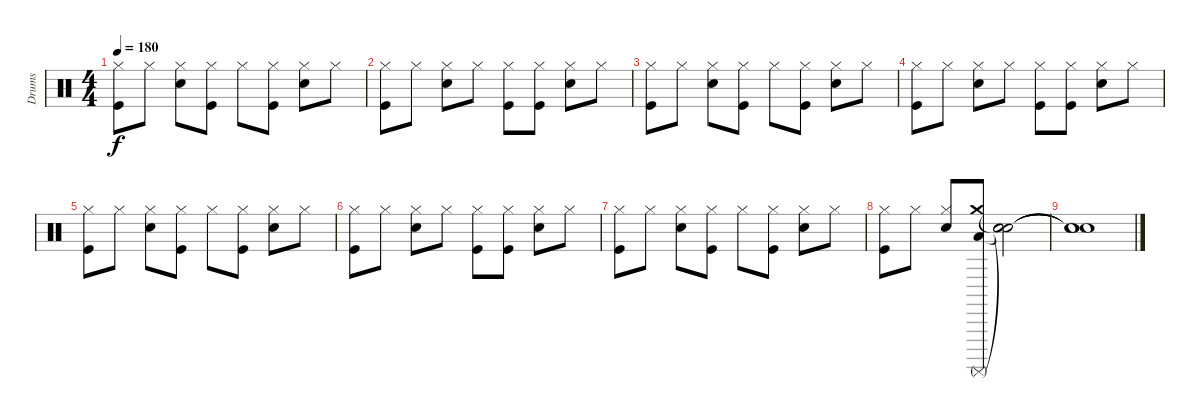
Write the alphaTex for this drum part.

\track ("Drums" "Drums") {instrument percussion}
\staff {score}
\articulation defaults
\ts (4 4)
\tempo 180
\clef neutral
\ks c
("Hi-Hat (closed)" "Kick (hit)").8{dy f} "Hi-Hat (closed)".8 ("Hi-Hat (closed)" "Snare (hit) 2").8 ("Hi-Hat (closed)" "Kick (hit)").8 "Hi-Hat (closed)".8 ("Hi-Hat (closed)" "Kick (hit)").8 ("Hi-Hat (closed)" "Snare (hit) 2").8 "Hi-Hat (closed)".8 |
("Hi-Hat (closed)" "Kick (hit)").8 "Hi-Hat (closed)".8 ("Hi-Hat (closed)" "Snare (hit) 2").8 "Hi-Hat (closed)".8 ("Hi-Hat (closed)" "Kick (hit)").8 ("Hi-Hat (closed)" "Kick (hit)").8 ("Hi-Hat (closed)" "Snare (hit) 2").8 "Hi-Hat (closed)".8 |
("Hi-Hat (closed)" "Kick (hit)").8 "Hi-Hat (closed)".8 ("Hi-Hat (closed)" "Snare (hit) 2").8 ("Hi-Hat (closed)" "Kick (hit)").8 "Hi-Hat (closed)".8 ("Hi-Hat (closed)" "Kick (hit)").8 ("Hi-Hat (closed)" "Snare (hit) 2").8 "Hi-Hat (closed)".8 |
("Hi-Hat (closed)" "Kick (hit)").8 "Hi-Hat (closed)".8 ("Hi-Hat (closed)" "Snare (hit) 2").8 "Hi-Hat (closed)".8 ("Hi-Hat (closed)" "Kick (hit)").8 ("Hi-Hat (closed)" "Kick (hit)").8 ("Hi-Hat (closed)" "Snare (hit) 2").8 "Hi-Hat (closed)".8 |
("Hi-Hat (closed)" "Kick (hit)").8 "Hi-Hat (closed)".8 ("Hi-Hat (closed)" "Snare (hit) 2").8 ("Hi-Hat (closed)" "Kick (hit)").8 "Hi-Hat (closed)".8 ("Hi-Hat (closed)" "Kick (hit)").8 ("Hi-Hat (closed)" "Snare (hit) 2").8 "Hi-Hat (closed)".8 |
("Hi-Hat (closed)" "Kick (hit)").8 "Hi-Hat (closed)".8 ("Hi-Hat (closed)" "Snare (hit) 2").8 "Hi-Hat (closed)".8 ("Hi-Hat (closed)" "Kick (hit)").8 ("Hi-Hat (closed)" "Kick (hit)").8 ("Hi-Hat (closed)" "Snare (hit) 2").8 "Hi-Hat (closed)".8 |
("Hi-Hat (closed)" "Kick (hit)").8 "Hi-Hat (closed)".8 ("Hi-Hat (closed)" "Snare (hit) 2").8 ("Hi-Hat (closed)" "Kick (hit)").8 "Hi-Hat (closed)".8 ("Hi-Hat (closed)" "Kick (hit)").8 ("Hi-Hat (closed)" "Snare (hit) 2").8 "Hi-Hat (closed)".8 |
("Hi-Hat (closed)" "Kick (hit)").8 "Hi-Hat (closed)".8 ("Hi-Hat (closed)" "Snare (hit) 2").8 ("Surdo (mute)" "Low Tom (hit)" "Crash medium (hit)").8 ("Snare (hit)"{t} "Snare (hit)"{t} "Snare (hit)"{t}).2 |
("Snare (hit)"{t} "Snare (hit)"{t} "Snare (hit)"{t}).1
